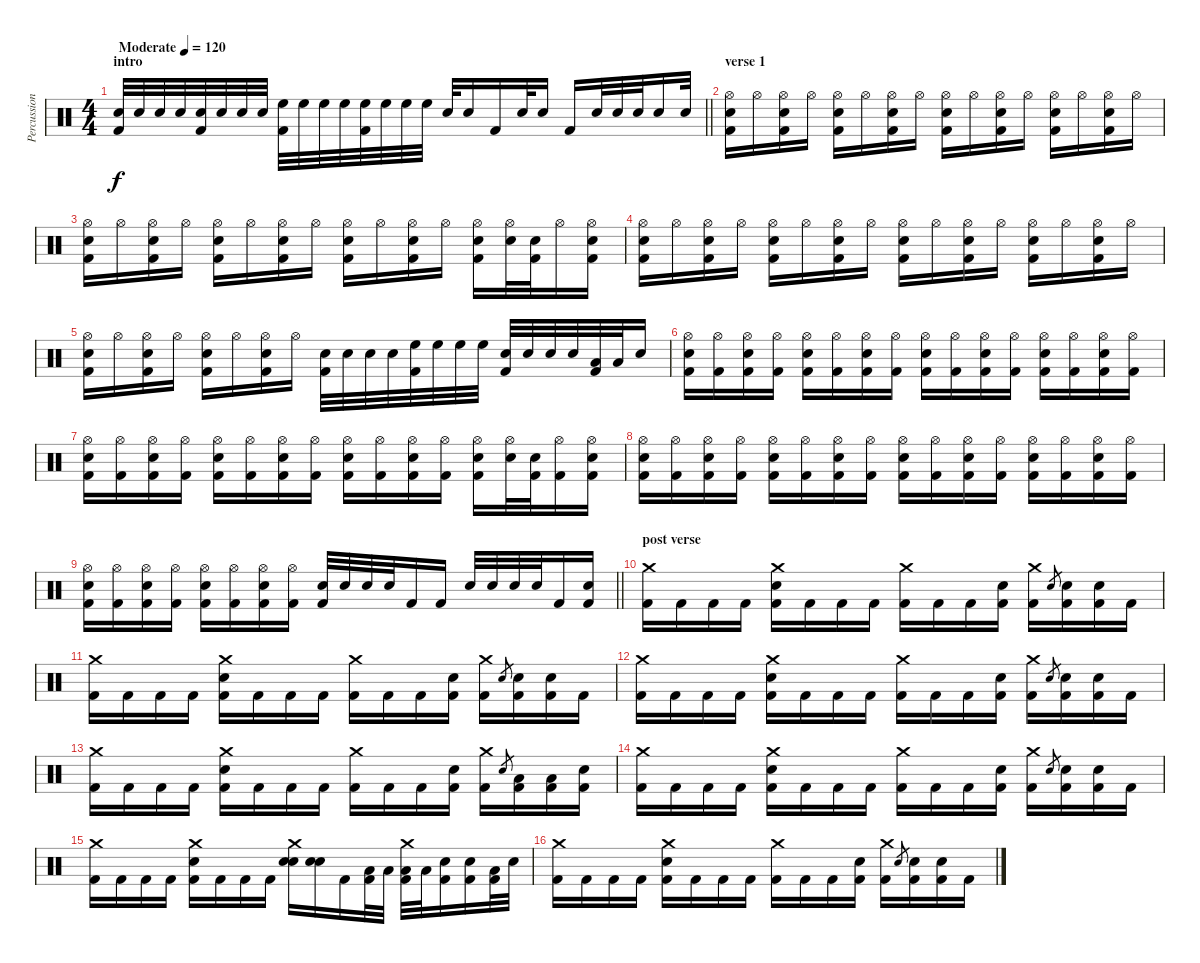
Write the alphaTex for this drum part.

\track ("Percussion" "Percussion") {instrument percussion}
\staff {score}
\articulation defaults
\ts (4 4)
\section ("" "intro")
\tempo (120 "Moderate")
\clef neutral
\barLineRight lightlight
\ks c
("Snare (hit) 2" "Kick (hit) 2").32{dy f} "Snare (hit) 2".32 "Snare (hit) 2".32 "Snare (hit) 2".32 ("Snare (hit) 2" "Kick (hit) 2").32 "Snare (hit) 2".32 "Snare (hit) 2".32 "Snare (hit) 2".32 ("High Floor Tom (hit)" "Kick (hit) 2").32 "High Floor Tom (hit)".32 "High Floor Tom (hit)".32 "High Floor Tom (hit)".32 ("High Floor Tom (hit)" "Kick (hit) 2").32 "High Floor Tom (hit)".32 "High Floor Tom (hit)".32 "High Floor Tom (hit)".32 "Snare (hit) 2".32 "Snare (hit) 2".16 "Kick (hit) 2".16 "Snare (hit) 2".32 "Snare (hit) 2".16 "Kick (hit) 2".16 "Snare (hit) 2".32 "Snare (hit) 2".32 "Snare (hit) 2".32 "Snare (hit) 2".16 "Snare (hit) 2".32 |
\section ("" "verse 1")
("Hi-Hat (open)" "Snare (hit) 2" "Kick (hit) 2").16 "Hi-Hat (open)".16 ("Hi-Hat (open)" "Snare (hit) 2" "Kick (hit) 2").16 "Hi-Hat (open)".16 ("Hi-Hat (open)" "Snare (hit) 2" "Kick (hit) 2").16 "Hi-Hat (open)".16 ("Hi-Hat (open)" "Snare (hit) 2" "Kick (hit) 2").16 "Hi-Hat (open)".16 ("Hi-Hat (open)" "Snare (hit) 2" "Kick (hit) 2").16 "Hi-Hat (open)".16 ("Hi-Hat (open)" "Snare (hit) 2" "Kick (hit) 2").16 "Hi-Hat (open)".16 ("Hi-Hat (open)" "Snare (hit) 2" "Kick (hit) 2").16 "Hi-Hat (open)".16 ("Hi-Hat (open)" "Snare (hit) 2" "Kick (hit) 2").16 "Hi-Hat (open)".16 |
("Hi-Hat (open)" "Snare (hit) 2" "Kick (hit) 2").16 "Hi-Hat (open)".16 ("Hi-Hat (open)" "Snare (hit) 2" "Kick (hit) 2").16 "Hi-Hat (open)".16 ("Hi-Hat (open)" "Snare (hit) 2" "Kick (hit) 2").16 "Hi-Hat (open)".16 ("Hi-Hat (open)" "Snare (hit) 2" "Kick (hit) 2").16 "Hi-Hat (open)".16 ("Hi-Hat (open)" "Snare (hit) 2" "Kick (hit) 2").16 "Hi-Hat (open)".16 ("Hi-Hat (open)" "Snare (hit) 2" "Kick (hit) 2").16 "Hi-Hat (open)".16 ("Hi-Hat (open)" "Snare (hit) 2" "Kick (hit) 2").16 ("Hi-Hat (open)" "Snare (hit) 2").32 ("Snare (hit) 2" "Kick (hit) 2").32 "Hi-Hat (open)".16 ("Hi-Hat (open)" "Snare (hit) 2" "Kick (hit) 2").16 |
("Hi-Hat (open)" "Snare (hit) 2" "Kick (hit) 2").16 "Hi-Hat (open)".16 ("Hi-Hat (open)" "Snare (hit) 2" "Kick (hit) 2").16 "Hi-Hat (open)".16 ("Hi-Hat (open)" "Snare (hit) 2" "Kick (hit) 2").16 "Hi-Hat (open)".16 ("Hi-Hat (open)" "Snare (hit) 2" "Kick (hit) 2").16 "Hi-Hat (open)".16 ("Hi-Hat (open)" "Snare (hit) 2" "Kick (hit) 2").16 "Hi-Hat (open)".16 ("Hi-Hat (open)" "Snare (hit) 2" "Kick (hit) 2").16 "Hi-Hat (open)".16 ("Hi-Hat (open)" "Snare (hit) 2" "Kick (hit) 2").16 "Hi-Hat (open)".16 ("Hi-Hat (open)" "Snare (hit) 2" "Kick (hit) 2").16 "Hi-Hat (open)".16 |
("Hi-Hat (open)" "Snare (hit) 2" "Kick (hit) 2").16 "Hi-Hat (open)".16 ("Hi-Hat (open)" "Snare (hit) 2" "Kick (hit) 2").16 "Hi-Hat (open)".16 ("Hi-Hat (open)" "Snare (hit) 2" "Kick (hit) 2").16 "Hi-Hat (open)".16 ("Hi-Hat (open)" "Snare (hit) 2" "Kick (hit) 2").16 "Hi-Hat (open)".16 ("Snare (hit) 2" "Kick (hit) 2").32 "Snare (hit) 2".32 "Snare (hit) 2".32 "Snare (hit) 2".32 ("High Floor Tom (hit)" "Kick (hit) 2").32 "High Floor Tom (hit)".32 "High Floor Tom (hit)".32 "High Floor Tom (hit)".32 ("Snare (hit) 2" "Kick (hit) 2").32 "Snare (hit) 2".32 "Snare (hit) 2".32 "Snare (hit) 2".32 ("Low Tom (hit)" "Kick (hit) 2").32 "Low Tom (hit)".32 "Snare (hit) 2".16 |
("Hi-Hat (open)" "Snare (hit) 2" "Kick (hit) 2").16 ("Hi-Hat (open)" "Kick (hit) 2").16 ("Hi-Hat (open)" "Snare (hit) 2" "Kick (hit) 2").16 ("Hi-Hat (open)" "Kick (hit) 2").16 ("Hi-Hat (open)" "Snare (hit) 2" "Kick (hit) 2").16 ("Hi-Hat (open)" "Kick (hit) 2").16 ("Hi-Hat (open)" "Snare (hit) 2" "Kick (hit) 2").16 ("Hi-Hat (open)" "Kick (hit) 2").16 ("Hi-Hat (open)" "Snare (hit) 2" "Kick (hit) 2").16 ("Hi-Hat (open)" "Kick (hit) 2").16 ("Hi-Hat (open)" "Snare (hit) 2" "Kick (hit) 2").16 ("Hi-Hat (open)" "Kick (hit) 2").16 ("Hi-Hat (open)" "Snare (hit) 2" "Kick (hit) 2").16 ("Hi-Hat (open)" "Kick (hit) 2").16 ("Hi-Hat (open)" "Snare (hit) 2" "Kick (hit) 2").16 ("Hi-Hat (open)" "Kick (hit) 2").16 |
("Hi-Hat (open)" "Snare (hit) 2" "Kick (hit) 2").16 ("Hi-Hat (open)" "Kick (hit) 2").16 ("Hi-Hat (open)" "Snare (hit) 2" "Kick (hit) 2").16 ("Hi-Hat (open)" "Kick (hit) 2").16 ("Hi-Hat (open)" "Snare (hit) 2" "Kick (hit) 2").16 ("Hi-Hat (open)" "Kick (hit) 2").16 ("Hi-Hat (open)" "Snare (hit) 2" "Kick (hit) 2").16 ("Hi-Hat (open)" "Kick (hit) 2").16 ("Hi-Hat (open)" "Snare (hit) 2" "Kick (hit) 2").16 ("Hi-Hat (open)" "Kick (hit) 2").16 ("Hi-Hat (open)" "Snare (hit) 2" "Kick (hit) 2").16 ("Hi-Hat (open)" "Kick (hit) 2").16 ("Hi-Hat (open)" "Snare (hit) 2" "Kick (hit) 2").16 ("Hi-Hat (open)" "Snare (hit) 2").32 ("Snare (hit) 2" "Kick (hit) 2").32 ("Hi-Hat (open)" "Kick (hit) 2").16 ("Hi-Hat (open)" "Snare (hit) 2" "Kick (hit) 2").16 |
("Hi-Hat (open)" "Snare (hit) 2" "Kick (hit) 2").16 ("Hi-Hat (open)" "Kick (hit) 2").16 ("Hi-Hat (open)" "Snare (hit) 2" "Kick (hit) 2").16 ("Hi-Hat (open)" "Kick (hit) 2").16 ("Hi-Hat (open)" "Snare (hit) 2" "Kick (hit) 2").16 ("Hi-Hat (open)" "Kick (hit) 2").16 ("Hi-Hat (open)" "Snare (hit) 2" "Kick (hit) 2").16 ("Hi-Hat (open)" "Kick (hit) 2").16 ("Hi-Hat (open)" "Snare (hit) 2" "Kick (hit) 2").16 ("Hi-Hat (open)" "Kick (hit) 2").16 ("Hi-Hat (open)" "Snare (hit) 2" "Kick (hit) 2").16 ("Hi-Hat (open)" "Kick (hit) 2").16 ("Hi-Hat (open)" "Snare (hit) 2" "Kick (hit) 2").16 ("Hi-Hat (open)" "Kick (hit) 2").16 ("Hi-Hat (open)" "Snare (hit) 2" "Kick (hit) 2").16 ("Hi-Hat (open)" "Kick (hit) 2").16 |
\barLineRight lightlight
("Hi-Hat (open)" "Snare (hit) 2" "Kick (hit) 2").16 ("Hi-Hat (open)" "Kick (hit) 2").16 ("Hi-Hat (open)" "Snare (hit) 2" "Kick (hit) 2").16 ("Hi-Hat (open)" "Kick (hit) 2").16 ("Hi-Hat (open)" "Snare (hit) 2" "Kick (hit) 2").16 ("Hi-Hat (open)" "Kick (hit) 2").16 ("Hi-Hat (open)" "Snare (hit) 2" "Kick (hit) 2").16 ("Hi-Hat (open)" "Kick (hit) 2").16 ("Snare (hit) 2" "Kick (hit) 2").32 "Snare (hit) 2".32 "Snare (hit) 2".32 "Snare (hit) 2".32 "Kick (hit) 2".16 "Kick (hit) 2".16 "Snare (hit) 2".32 "Snare (hit) 2".32 "Snare (hit) 2".32 "Snare (hit) 2".32 "Kick (hit) 2".16 ("Snare (hit) 2" "Kick (hit) 2").16 |
\section ("" "post verse")
("Crash medium (hit)" "Kick (hit) 2").16 "Kick (hit) 2".16 "Kick (hit) 2".16 "Kick (hit) 2".16 ("Crash medium (hit)" "Snare (hit) 2" "Kick (hit) 2").16 "Kick (hit) 2".16 "Kick (hit) 2".16 "Kick (hit) 2".16 ("Crash medium (hit)" "Kick (hit) 2").16 "Kick (hit) 2".16 "Kick (hit) 2".16 ("Snare (hit) 2" "Kick (hit) 2").16 ("Crash medium (hit)" "Kick (hit) 2").16 "Snare (hit) 2".8{gr} ("Snare (hit) 2" "Kick (hit) 2").16 ("Snare (hit) 2" "Kick (hit) 2").16 "Kick (hit) 2".16 |
("Crash medium (hit)" "Kick (hit) 2").16 "Kick (hit) 2".16 "Kick (hit) 2".16 "Kick (hit) 2".16 ("Crash medium (hit)" "Snare (hit) 2" "Kick (hit) 2").16 "Kick (hit) 2".16 "Kick (hit) 2".16 "Kick (hit) 2".16 ("Crash medium (hit)" "Kick (hit) 2").16 "Kick (hit) 2".16 "Kick (hit) 2".16 ("Snare (hit) 2" "Kick (hit) 2").16 ("Crash medium (hit)" "Kick (hit) 2").16 "Snare (hit) 2".8{gr} ("Snare (hit) 2" "Kick (hit) 2").16 ("Snare (hit) 2" "Kick (hit) 2").16 "Kick (hit) 2".16 |
("Crash medium (hit)" "Kick (hit) 2").16 "Kick (hit) 2".16 "Kick (hit) 2".16 "Kick (hit) 2".16 ("Crash medium (hit)" "Snare (hit) 2" "Kick (hit) 2").16 "Kick (hit) 2".16 "Kick (hit) 2".16 "Kick (hit) 2".16 ("Crash medium (hit)" "Kick (hit) 2").16 "Kick (hit) 2".16 "Kick (hit) 2".16 ("Snare (hit) 2" "Kick (hit) 2").16 ("Crash medium (hit)" "Kick (hit) 2").16 "Snare (hit) 2".8{gr} ("Snare (hit) 2" "Kick (hit) 2").16 ("Snare (hit) 2" "Kick (hit) 2").16 "Kick (hit) 2".16 |
("Crash medium (hit)" "Kick (hit) 2").16 "Kick (hit) 2".16 "Kick (hit) 2".16 "Kick (hit) 2".16 ("Crash medium (hit)" "Snare (hit) 2" "Kick (hit) 2").16 "Kick (hit) 2".16 "Kick (hit) 2".16 "Kick (hit) 2".16 ("Crash medium (hit)" "Kick (hit) 2").16 "Kick (hit) 2".16 "Kick (hit) 2".16 ("Snare (hit) 2" "Kick (hit) 2").16 ("Crash medium (hit)" "Kick (hit) 2").16 "Snare (hit) 2".8{gr} ("Low Tom (hit)" "Kick (hit) 2").16 ("Low Tom (hit)" "Kick (hit) 2").16 ("Snare (hit) 2" "Kick (hit) 2").16 |
("Crash medium (hit)" "Kick (hit) 2").16 "Kick (hit) 2".16 "Kick (hit) 2".16 "Kick (hit) 2".16 ("Crash medium (hit)" "Snare (hit) 2" "Kick (hit) 2").16 "Kick (hit) 2".16 "Kick (hit) 2".16 "Kick (hit) 2".16 ("Crash medium (hit)" "Kick (hit) 2").16 "Kick (hit) 2".16 "Kick (hit) 2".16 ("Snare (hit) 2" "Kick (hit) 2").16 ("Crash medium (hit)" "Kick (hit) 2").16 "Snare (hit) 2".8{gr} ("Snare (hit) 2" "Kick (hit) 2").16 ("Snare (hit) 2" "Kick (hit) 2").16 "Kick (hit) 2".16 |
("Crash medium (hit)" "Kick (hit) 2").16 "Kick (hit) 2".16 "Kick (hit) 2".16 "Kick (hit) 2".16 ("Crash medium (hit)" "Snare (hit) 2" "Kick (hit) 2").16 "Kick (hit) 2".16 "Kick (hit) 2".16 "Kick (hit) 2".16 ("Crash medium (hit)" "Snare (hit) 2" "Snare (hit) 2").16 ("Snare (hit) 2" "Snare (hit) 2").16 "Kick (hit) 2".16 ("Low Tom (hit)" "Kick (hit) 2").32 "Low Tom (hit)".32 ("Crash medium (hit)" "Low Tom (hit)" "Kick (hit) 2").32 "Low Tom (hit)".32 ("Snare (hit) 2" "Kick (hit) 2").16 ("Snare (hit) 2" "Kick (hit) 2").16 ("Low Tom (hit)" "Kick (hit) 2").32 "Snare (hit) 2".32 |
("Crash medium (hit)" "Kick (hit) 2").16 "Kick (hit) 2".16 "Kick (hit) 2".16 "Kick (hit) 2".16 ("Crash medium (hit)" "Snare (hit) 2" "Kick (hit) 2").16 "Kick (hit) 2".16 "Kick (hit) 2".16 "Kick (hit) 2".16 ("Crash medium (hit)" "Kick (hit) 2").16 "Kick (hit) 2".16 "Kick (hit) 2".16 ("Snare (hit) 2" "Kick (hit) 2").16 ("Crash medium (hit)" "Kick (hit) 2").16 "Snare (hit) 2".8{gr} ("Snare (hit) 2" "Kick (hit) 2").16 ("Snare (hit) 2" "Kick (hit) 2").16 "Kick (hit) 2".16
